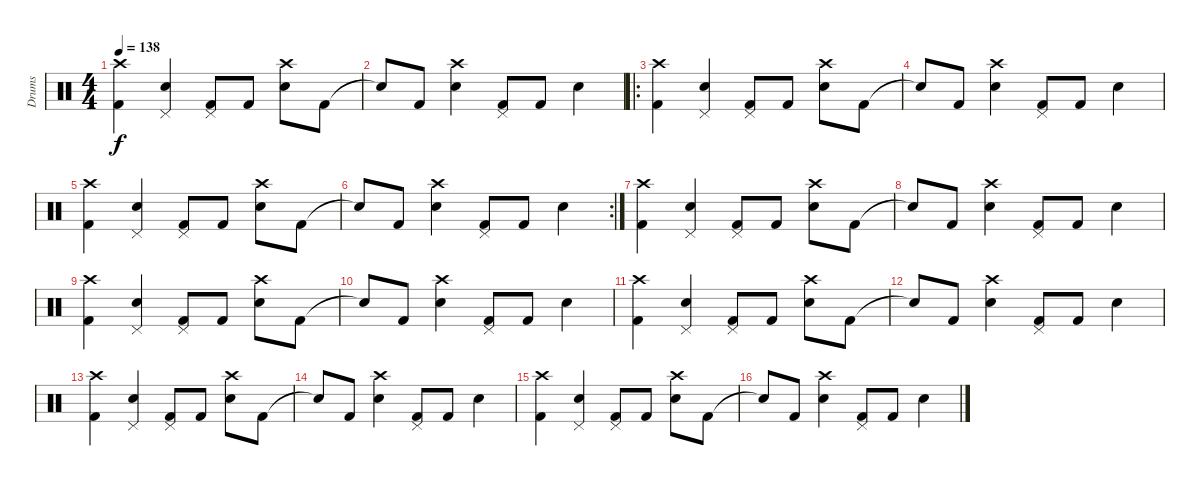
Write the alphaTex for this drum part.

\track ("Drums" "Drums") {instrument percussion}
\staff {score}
\articulation defaults
\ts (4 4)
\tempo 138
\clef neutral
\ks c
("Crash high (hit)" "Kick (hit) 2").4{dy f} ("Pedal Hi-Hat (hit)" "Snare (hit) 2").4 ("Pedal Hi-Hat (hit)" "Kick (hit) 2").8 "Kick (hit) 2".8 ("Crash high (hit)" "Snare (hit) 2").8 "Kick (hit) 2".8 |
"Snare (hit)"{t}.8 "Kick (hit) 2".8 ("Crash high (hit)" "Snare (hit) 2").4 ("Pedal Hi-Hat (hit)" "Kick (hit) 2").8 "Kick (hit) 2".8 "Snare (hit) 2".4 |
\ro
("Crash high (hit)" "Kick (hit) 2").4 ("Pedal Hi-Hat (hit)" "Snare (hit) 2").4 ("Pedal Hi-Hat (hit)" "Kick (hit) 2").8 "Kick (hit) 2".8 ("Crash high (hit)" "Snare (hit) 2").8 "Kick (hit) 2".8 |
"Snare (hit)"{t}.8 "Kick (hit) 2".8 ("Crash high (hit)" "Snare (hit) 2").4 ("Pedal Hi-Hat (hit)" "Kick (hit) 2").8 "Kick (hit) 2".8 "Snare (hit) 2".4 |
("Crash high (hit)" "Kick (hit) 2").4 ("Pedal Hi-Hat (hit)" "Snare (hit) 2").4 ("Pedal Hi-Hat (hit)" "Kick (hit) 2").8 "Kick (hit) 2".8 ("Crash high (hit)" "Snare (hit) 2").8 "Kick (hit) 2".8 |
\rc 2 "Snare (hit)"{t}.8 "Kick (hit) 2".8
("Crash high (hit)" "Snare (hit) 2").4 ("Pedal Hi-Hat (hit)" "Kick (hit) 2").8 "Kick (hit) 2".8 "Snare (hit) 2".4 |
("Crash high (hit)" "Kick (hit) 2").4 ("Pedal Hi-Hat (hit)" "Snare (hit) 2").4 ("Pedal Hi-Hat (hit)" "Kick (hit) 2").8 "Kick (hit) 2".8 ("Crash high (hit)" "Snare (hit) 2").8 "Kick (hit) 2".8 |
"Snare (hit)"{t}.8 "Kick (hit) 2".8 ("Crash high (hit)" "Snare (hit) 2").4 ("Pedal Hi-Hat (hit)" "Kick (hit) 2").8 "Kick (hit) 2".8 "Snare (hit) 2".4 |
("Crash high (hit)" "Kick (hit) 2").4 ("Pedal Hi-Hat (hit)" "Snare (hit) 2").4 ("Pedal Hi-Hat (hit)" "Kick (hit) 2").8 "Kick (hit) 2".8 ("Crash high (hit)" "Snare (hit) 2").8 "Kick (hit) 2".8 |
"Snare (hit)"{t}.8 "Kick (hit) 2".8 ("Crash high (hit)" "Snare (hit) 2").4 ("Pedal Hi-Hat (hit)" "Kick (hit) 2").8 "Kick (hit) 2".8 "Snare (hit) 2".4 |
("Crash high (hit)" "Kick (hit) 2").4 ("Pedal Hi-Hat (hit)" "Snare (hit) 2").4 ("Pedal Hi-Hat (hit)" "Kick (hit) 2").8 "Kick (hit) 2".8 ("Crash high (hit)" "Snare (hit) 2").8 "Kick (hit) 2".8 |
"Snare (hit)"{t}.8 "Kick (hit) 2".8 ("Crash high (hit)" "Snare (hit) 2").4 ("Pedal Hi-Hat (hit)" "Kick (hit) 2").8 "Kick (hit) 2".8 "Snare (hit) 2".4 |
("Crash high (hit)" "Kick (hit) 2").4 ("Pedal Hi-Hat (hit)" "Snare (hit) 2").4 ("Pedal Hi-Hat (hit)" "Kick (hit) 2").8 "Kick (hit) 2".8 ("Crash high (hit)" "Snare (hit) 2").8 "Kick (hit) 2".8 |
"Snare (hit)"{t}.8 "Kick (hit) 2".8 ("Crash high (hit)" "Snare (hit) 2").4 ("Pedal Hi-Hat (hit)" "Kick (hit) 2").8 "Kick (hit) 2".8 "Snare (hit) 2".4 |
("Crash high (hit)" "Kick (hit) 2").4 ("Pedal Hi-Hat (hit)" "Snare (hit) 2").4 ("Pedal Hi-Hat (hit)" "Kick (hit) 2").8 "Kick (hit) 2".8 ("Crash high (hit)" "Snare (hit) 2").8 "Kick (hit) 2".8 |
"Snare (hit)"{t}.8 "Kick (hit) 2".8 ("Crash high (hit)" "Snare (hit) 2").4 ("Pedal Hi-Hat (hit)" "Kick (hit) 2").8 "Kick (hit) 2".8 "Snare (hit) 2".4
